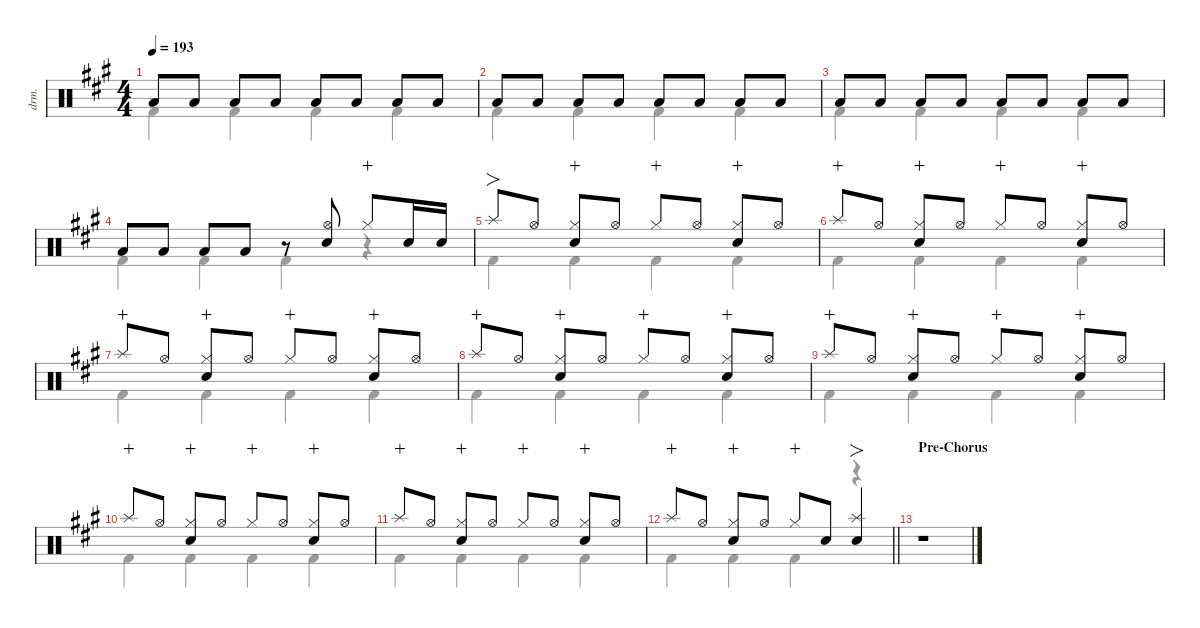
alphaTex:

\defaultSystemsLayout 4
\hideDynamics
\bracketExtendMode nobrackets
\otherSystemsTrackNameOrientation horizontal
\track ("伊地知虹夏" "drm.") {instrument percussion}
\staff {score}
\articulation defaults
\voice
\ts (4 4)
\tempo 193
\clef neutral
\ks a "Low Tom (hit)"{acc forcenatural}.8{dy mf beam Up} "Low Tom (hit)"{acc forcenatural}.8{beam Up} "Low Tom (hit)"{acc forcenatural}.8{beam Up} "Low Tom (hit)"{acc forcenatural}.8{beam Up} "Low Tom (hit)"{acc forcenatural}.8{beam Up} "Low Tom (hit)"{acc forcenatural}.8{beam Up} "Low Tom (hit)"{acc forcenatural}.8{beam Up} "Low Tom (hit)"{acc forcenatural}.8{beam Up}
|
"Low Tom (hit)"{acc forcenatural}.8{beam Up} "Low Tom (hit)"{acc forcenatural}.8{beam Up} "Low Tom (hit)"{acc forcenatural}.8{beam Up} "Low Tom (hit)"{acc forcenatural}.8{beam Up} "Low Tom (hit)"{acc forcenatural}.8{beam Up} "Low Tom (hit)"{acc forcenatural}.8{beam Up} "Low Tom (hit)"{acc forcenatural}.8{beam Up} "Low Tom (hit)"{acc forcenatural}.8{beam Up} |
"Low Tom (hit)"{acc forcenatural}.8{beam Up} "Low Tom (hit)"{acc forcenatural}.8{beam Up} "Low Tom (hit)"{acc forcenatural}.8{beam Up} "Low Tom (hit)"{acc forcenatural}.8{beam Up} "Low Tom (hit)"{acc forcenatural}.8{beam Up} "Low Tom (hit)"{acc forcenatural}.8{beam Up} "Low Tom (hit)"{acc forcenatural}.8{beam Up} "Low Tom (hit)"{acc forcenatural}.8{beam Up} |
"Low Tom (hit)"{acc forcenatural}.8{beam Up} "Low Tom (hit)"{acc forcenatural}.8{beam Up} "Low Tom (hit)"{acc forcenatural}.8{beam Up} "Low Tom (hit)"{acc forcenatural}.8{beam Up} r.8{beam Up} ("Hi-Hat (open)"{acc forcenatural} "Snare (hit) 2"{acc forcenatural}).8{beam Up} "Hi-Hat (closed)"{acc forcenatural}.8{wahc beam Up} "Snare (hit) 2"{acc forcenatural}.16{beam Up} "Snare (hit) 2"{acc forcenatural}.16{beam Up} |
"Splash (hit)"{acc forcenatural}.8{fo beam Up} "Hi-Hat (open)"{acc forcenatural}.8{beam Up} ("Hi-Hat (closed)"{acc forcenatural} "Snare (hit) 2"{acc forcenatural}).8{wahc beam Up} "Hi-Hat (open)"{acc forcenatural}.8{beam Up} "Hi-Hat (closed)"{acc forcenatural}.8{wahc beam Up} "Hi-Hat (open)"{acc forcenatural}.8{beam Up} ("Hi-Hat (closed)"{acc forcenatural} "Snare (hit) 2"{acc forcenatural}).8{wahc beam Up} "Hi-Hat (open)"{acc forcenatural}.8{beam Up} |
"Splash (hit)"{acc forcenatural}.8{wahc beam Up} "Hi-Hat (open)"{acc forcenatural}.8{beam Up} ("Hi-Hat (closed)"{acc forcenatural} "Snare (hit) 2"{acc forcenatural}).8{wahc beam Up} "Hi-Hat (open)"{acc forcenatural}.8{beam Up} "Hi-Hat (closed)"{acc forcenatural}.8{wahc beam Up} "Hi-Hat (open)"{acc forcenatural}.8{beam Up} ("Hi-Hat (closed)"{acc forcenatural} "Snare (hit) 2"{acc forcenatural}).8{wahc beam Up} "Hi-Hat (open)"{acc forcenatural}.8{beam Up} |
"Splash (hit)"{acc forcenatural}.8{wahc beam Up} "Hi-Hat (open)"{acc forcenatural}.8{beam Up} ("Hi-Hat (closed)"{acc forcenatural} "Snare (hit) 2"{acc forcenatural}).8{wahc beam Up} "Hi-Hat (open)"{acc forcenatural}.8{beam Up} "Hi-Hat (closed)"{acc forcenatural}.8{wahc beam Up} "Hi-Hat (open)"{acc forcenatural}.8{beam Up} ("Hi-Hat (closed)"{acc forcenatural} "Snare (hit) 2"{acc forcenatural}).8{wahc beam Up} "Hi-Hat (open)"{acc forcenatural}.8{beam Up} |
"Splash (hit)"{acc forcenatural}.8{wahc beam Up} "Hi-Hat (open)"{acc forcenatural}.8{beam Up} ("Hi-Hat (closed)"{acc forcenatural} "Snare (hit) 2"{acc forcenatural}).8{wahc beam Up} "Hi-Hat (open)"{acc forcenatural}.8{beam Up} "Hi-Hat (closed)"{acc forcenatural}.8{wahc beam Up} "Hi-Hat (open)"{acc forcenatural}.8{beam Up} ("Hi-Hat (closed)"{acc forcenatural} "Snare (hit) 2"{acc forcenatural}).8{wahc beam Up} "Hi-Hat (open)"{acc forcenatural}.8{beam Up} |
"Splash (hit)"{acc forcenatural}.8{wahc beam Up} "Hi-Hat (open)"{acc forcenatural}.8{beam Up} ("Hi-Hat (closed)"{acc forcenatural} "Snare (hit) 2"{acc forcenatural}).8{wahc beam Up} "Hi-Hat (open)"{acc forcenatural}.8{beam Up} "Hi-Hat (closed)"{acc forcenatural}.8{wahc beam Up} "Hi-Hat (open)"{acc forcenatural}.8{beam Up} ("Hi-Hat (closed)"{acc forcenatural} "Snare (hit) 2"{acc forcenatural}).8{wahc beam Up} "Hi-Hat (open)"{acc forcenatural}.8{beam Up} |
"Splash (hit)"{acc forcenatural}.8{wahc beam Up} "Hi-Hat (open)"{acc forcenatural}.8{beam Up} ("Hi-Hat (closed)"{acc forcenatural} "Snare (hit) 2"{acc forcenatural}).8{wahc beam Up} "Hi-Hat (open)"{acc forcenatural}.8{beam Up} "Hi-Hat (closed)"{acc forcenatural}.8{wahc beam Up} "Hi-Hat (open)"{acc forcenatural}.8{beam Up} ("Hi-Hat (closed)"{acc forcenatural} "Snare (hit) 2"{acc forcenatural}).8{wahc beam Up} "Hi-Hat (open)"{acc forcenatural}.8{beam Up} |
"Splash (hit)"{acc forcenatural}.8{wahc beam Up} "Hi-Hat (open)"{acc forcenatural}.8{beam Up} ("Hi-Hat (closed)"{acc forcenatural} "Snare (hit) 2"{acc forcenatural}).8{wahc beam Up} "Hi-Hat (open)"{acc forcenatural}.8{beam Up} "Hi-Hat (closed)"{acc forcenatural}.8{wahc beam Up} "Hi-Hat (open)"{acc forcenatural}.8{beam Up} ("Hi-Hat (closed)"{acc forcenatural} "Snare (hit) 2"{acc forcenatural}).8{wahc beam Up} "Hi-Hat (open)"{acc forcenatural}.8{beam Up} |
\barLineRight lightlight "Splash (hit)"{acc forcenatural}.8{wahc beam Up} "Hi-Hat (open)"{acc forcenatural}.8{beam Up}
("Hi-Hat (closed)"{acc forcenatural} "Snare (hit) 2"{acc forcenatural}).8{wahc beam Up} "Hi-Hat (open)"{acc forcenatural}.8{beam Up} "Hi-Hat (closed)"{acc forcenatural}.8{wahc beam Up} "Snare (hit) 2"{acc forcenatural}.8{beam Up} ("Splash (hit)"{acc forcenatural} "Snare (hit) 2"{acc forcenatural}).4{fo beam Up} |
\section ("" "Pre-Chorus")
r.1{beam Down} |
|
|
\voice
\clef neutral
\ottava regular
\simile none
\ks a "Kick (hit) 2"{acc forcenatural}.4{dy mf beam Down} "Kick (hit) 2"{acc forcenatural}.4{beam Down} "Kick (hit) 2"{acc forcenatural}.4{beam Down} "Kick (hit) 2"{acc forcenatural}.4{beam Down}
|
"Kick (hit) 2"{acc forcenatural}.4{beam Down} "Kick (hit) 2"{acc forcenatural}.4{beam Down} "Kick (hit) 2"{acc forcenatural}.4{beam Down} "Kick (hit) 2"{acc forcenatural}.4{beam Down} |
"Kick (hit) 2"{acc forcenatural}.4{beam Down} "Kick (hit) 2"{acc forcenatural}.4{beam Down} "Kick (hit) 2"{acc forcenatural}.4{beam Down} "Kick (hit) 2"{acc forcenatural}.4{beam Down} |
"Kick (hit) 2"{acc forcenatural}.4{beam Down} "Kick (hit) 2"{acc forcenatural}.4{beam Down} "Kick (hit) 2"{acc forcenatural}.4{beam Down} r.4{beam Down} |
"Kick (hit) 2"{acc forcenatural}.4{beam Down} "Kick (hit) 2"{acc forcenatural}.4{beam Down} "Kick (hit) 2"{acc forcenatural}.4{beam Down} "Kick (hit) 2"{acc forcenatural}.4{beam Down} |
"Kick (hit) 2"{acc forcenatural}.4{beam Down} "Kick (hit) 2"{acc forcenatural}.4{beam Down} "Kick (hit) 2"{acc forcenatural}.4{beam Down} "Kick (hit) 2"{acc forcenatural}.4{beam Down} |
"Kick (hit) 2"{acc forcenatural}.4{beam Down} "Kick (hit) 2"{acc forcenatural}.4{beam Down} "Kick (hit) 2"{acc forcenatural}.4{beam Down} "Kick (hit) 2"{acc forcenatural}.4{beam Down} |
"Kick (hit) 2"{acc forcenatural}.4{beam Down} "Kick (hit) 2"{acc forcenatural}.4{beam Down} "Kick (hit) 2"{acc forcenatural}.4{beam Down} "Kick (hit) 2"{acc forcenatural}.4{beam Down} |
"Kick (hit) 2"{acc forcenatural}.4{beam Down} "Kick (hit) 2"{acc forcenatural}.4{beam Down} "Kick (hit) 2"{acc forcenatural}.4{beam Down} "Kick (hit) 2"{acc forcenatural}.4{beam Down} |
"Kick (hit) 2"{acc forcenatural}.4{beam Down} "Kick (hit) 2"{acc forcenatural}.4{beam Down} "Kick (hit) 2"{acc forcenatural}.4{beam Down} "Kick (hit) 2"{acc forcenatural}.4{beam Down} |
"Kick (hit) 2"{acc forcenatural}.4{beam Down} "Kick (hit) 2"{acc forcenatural}.4{beam Down} "Kick (hit) 2"{acc forcenatural}.4{beam Down} "Kick (hit) 2"{acc forcenatural}.4{beam Down} |
\barLineRight lightlight "Kick (hit) 2"{acc forcenatural}.4{beam Down} "Kick (hit) 2"{acc forcenatural}.4{beam Down} "Kick (hit) 2"{acc forcenatural}.4{beam Down}
r.4{beam Down} |
|
|
|
